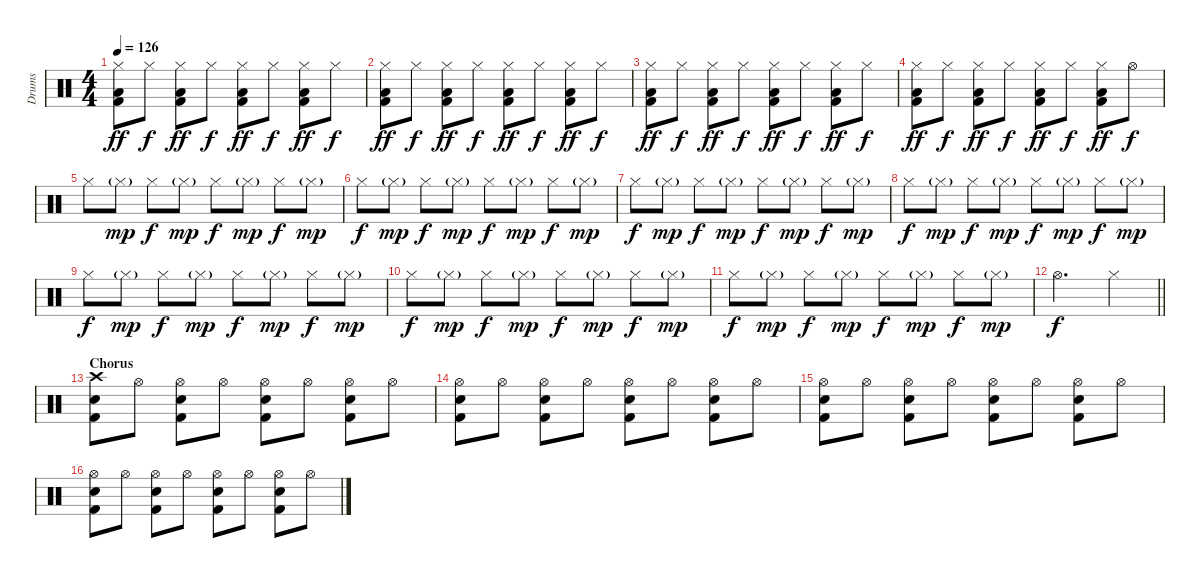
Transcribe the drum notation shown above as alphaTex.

\track ("Drums" "Drums") {instrument percussion}
\staff {score}
\articulation defaults
\ts (4 4)
\tempo 126
\clef neutral
\ks c
("Hi-Hat (closed)" "Kick (hit) 2" "Low Tom (hit)").8{dy ff} "Hi-Hat (closed)".8{dy f} ("Hi-Hat (closed)" "Kick (hit) 2" "Low Tom (hit)").8{dy ff} "Hi-Hat (closed)".8{dy f} ("Hi-Hat (closed)" "Kick (hit) 2" "Low Tom (hit)").8{dy ff} "Hi-Hat (closed)".8{dy f} ("Hi-Hat (closed)" "Kick (hit) 2" "Low Tom (hit)").8{dy ff} "Hi-Hat (closed)".8{dy f} |
("Hi-Hat (closed)" "Kick (hit) 2" "Low Tom (hit)").8{dy ff} "Hi-Hat (closed)".8{dy f} ("Hi-Hat (closed)" "Kick (hit) 2" "Low Tom (hit)").8{dy ff} "Hi-Hat (closed)".8{dy f} ("Hi-Hat (closed)" "Kick (hit) 2" "Low Tom (hit)").8{dy ff} "Hi-Hat (closed)".8{dy f} ("Hi-Hat (closed)" "Kick (hit) 2" "Low Tom (hit)").8{dy ff} "Hi-Hat (closed)".8{dy f} |
("Hi-Hat (closed)" "Kick (hit) 2" "Low Tom (hit)").8{dy ff} "Hi-Hat (closed)".8{dy f} ("Hi-Hat (closed)" "Kick (hit) 2" "Low Tom (hit)").8{dy ff} "Hi-Hat (closed)".8{dy f} ("Hi-Hat (closed)" "Kick (hit) 2" "Low Tom (hit)").8{dy ff} "Hi-Hat (closed)".8{dy f} ("Hi-Hat (closed)" "Kick (hit) 2" "Low Tom (hit)").8{dy ff} "Hi-Hat (closed)".8{dy f} |
("Hi-Hat (closed)" "Kick (hit) 2" "Low Tom (hit)").8{dy ff} "Hi-Hat (closed)".8{dy f} ("Hi-Hat (closed)" "Kick (hit) 2" "Low Tom (hit)").8{dy ff} "Hi-Hat (closed)".8{dy f} ("Hi-Hat (closed)" "Kick (hit) 2" "Low Tom (hit)").8{dy ff} "Hi-Hat (closed)".8{dy f} ("Hi-Hat (closed)" "Kick (hit) 2" "Low Tom (hit)").8{dy ff} "Hi-Hat (open)".8{dy f} |
"Hi-Hat (closed)".8 "Hi-Hat (closed)"{g}.8{dy mp} "Hi-Hat (closed)".8{dy f} "Hi-Hat (closed)"{g}.8{dy mp} "Hi-Hat (closed)".8{dy f} "Hi-Hat (closed)"{g}.8{dy mp} "Hi-Hat (closed)".8{dy f} "Hi-Hat (closed)"{g}.8{dy mp} |
"Hi-Hat (closed)".8{dy f} "Hi-Hat (closed)"{g}.8{dy mp} "Hi-Hat (closed)".8{dy f} "Hi-Hat (closed)"{g}.8{dy mp} "Hi-Hat (closed)".8{dy f} "Hi-Hat (closed)"{g}.8{dy mp} "Hi-Hat (closed)".8{dy f} "Hi-Hat (closed)"{g}.8{dy mp} |
"Hi-Hat (closed)".8{dy f} "Hi-Hat (closed)"{g}.8{dy mp} "Hi-Hat (closed)".8{dy f} "Hi-Hat (closed)"{g}.8{dy mp} "Hi-Hat (closed)".8{dy f} "Hi-Hat (closed)"{g}.8{dy mp} "Hi-Hat (closed)".8{dy f} "Hi-Hat (closed)"{g}.8{dy mp} |
"Hi-Hat (closed)".8{dy f} "Hi-Hat (closed)"{g}.8{dy mp} "Hi-Hat (closed)".8{dy f} "Hi-Hat (closed)"{g}.8{dy mp} "Hi-Hat (closed)".8{dy f} "Hi-Hat (closed)"{g}.8{dy mp} "Hi-Hat (closed)".8{dy f} "Hi-Hat (closed)"{g}.8{dy mp} |
"Hi-Hat (closed)".8{dy f} "Hi-Hat (closed)"{g}.8{dy mp} "Hi-Hat (closed)".8{dy f} "Hi-Hat (closed)"{g}.8{dy mp} "Hi-Hat (closed)".8{dy f} "Hi-Hat (closed)"{g}.8{dy mp} "Hi-Hat (closed)".8{dy f} "Hi-Hat (closed)"{g}.8{dy mp} |
"Hi-Hat (closed)".8{dy f} "Hi-Hat (closed)"{g}.8{dy mp} "Hi-Hat (closed)".8{dy f} "Hi-Hat (closed)"{g}.8{dy mp} "Hi-Hat (closed)".8{dy f} "Hi-Hat (closed)"{g}.8{dy mp} "Hi-Hat (closed)".8{dy f} "Hi-Hat (closed)"{g}.8{dy mp} |
"Hi-Hat (closed)".8{dy f} "Hi-Hat (closed)"{g}.8{dy mp} "Hi-Hat (closed)".8{dy f} "Hi-Hat (closed)"{g}.8{dy mp} "Hi-Hat (closed)".8{dy f} "Hi-Hat (closed)"{g}.8{dy mp} "Hi-Hat (closed)".8{dy f} "Hi-Hat (closed)"{g}.8{dy mp} |
\barLineRight lightlight "Hi-Hat (open)".2{d dy f} "Hi-Hat (closed)".4
|
\section ("" "Chorus")
("Crash high (hit)" "Kick (hit) 2" "Electric Snare (hit)").8 "Hi-Hat (open)".8 ("Hi-Hat (open)" "Kick (hit) 2" "Electric Snare (hit)").8 "Hi-Hat (open)".8 ("Hi-Hat (open)" "Kick (hit) 2" "Electric Snare (hit)").8 "Hi-Hat (open)".8 ("Hi-Hat (open)" "Kick (hit) 2" "Electric Snare (hit)").8 "Hi-Hat (open)".8 |
("Hi-Hat (open)" "Kick (hit) 2" "Electric Snare (hit)").8 "Hi-Hat (open)".8 ("Hi-Hat (open)" "Kick (hit) 2" "Electric Snare (hit)").8 "Hi-Hat (open)".8 ("Hi-Hat (open)" "Kick (hit) 2" "Electric Snare (hit)").8 "Hi-Hat (open)".8 ("Hi-Hat (open)" "Kick (hit) 2" "Electric Snare (hit)").8 "Hi-Hat (open)".8 |
("Hi-Hat (open)" "Kick (hit) 2" "Electric Snare (hit)").8 "Hi-Hat (open)".8 ("Hi-Hat (open)" "Kick (hit) 2" "Electric Snare (hit)").8 "Hi-Hat (open)".8 ("Hi-Hat (open)" "Kick (hit) 2" "Electric Snare (hit)").8 "Hi-Hat (open)".8 ("Hi-Hat (open)" "Kick (hit) 2" "Electric Snare (hit)").8 "Hi-Hat (open)".8 |
("Hi-Hat (open)" "Kick (hit) 2" "Electric Snare (hit)").8 "Hi-Hat (open)".8 ("Hi-Hat (open)" "Kick (hit) 2" "Electric Snare (hit)").8 "Hi-Hat (open)".8 ("Hi-Hat (open)" "Kick (hit) 2" "Electric Snare (hit)").8 "Hi-Hat (open)".8 ("Hi-Hat (open)" "Kick (hit) 2" "Electric Snare (hit)").8 "Hi-Hat (open)".8
